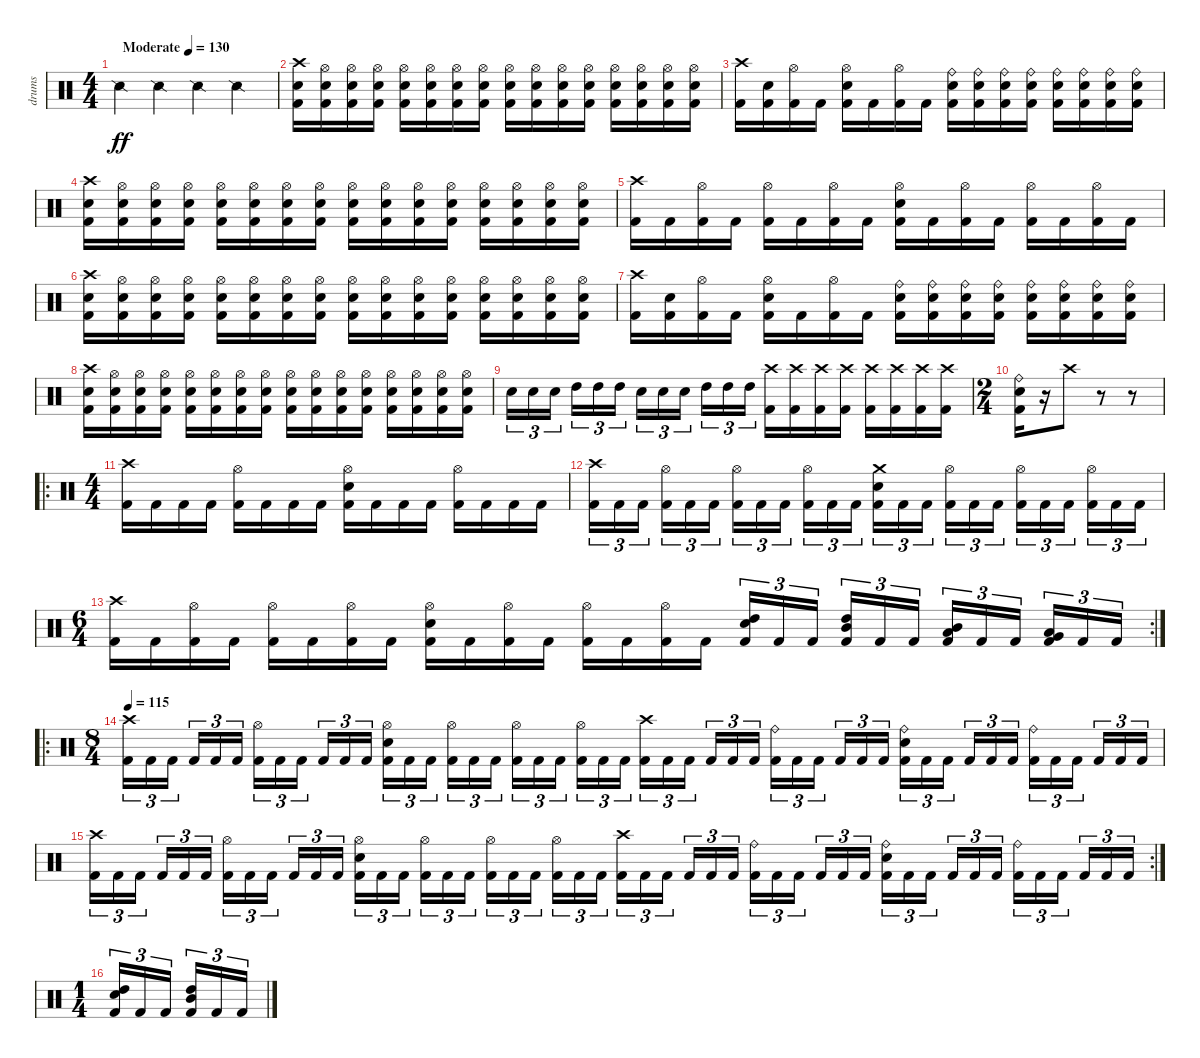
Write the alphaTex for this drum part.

\track ("drums" "drums") {instrument percussion}
\staff {score}
\articulation defaults
\ts (4 4)
\tempo (130 "Moderate")
\clef neutral
\ks c "Snare (side stick) 2".4{dy ff} "Snare (side stick) 2".4 "Snare (side stick) 2".4 "Snare (side stick) 2".4
|
("Electric Snare (hit)" "Crash high (hit)" "Kick (hit) 2").16 ("Electric Snare (hit)" "Hi-Hat (open)" "Kick (hit) 2").16 ("Electric Snare (hit)" "Hi-Hat (open)" "Kick (hit) 2").16 ("Electric Snare (hit)" "Hi-Hat (open)" "Kick (hit) 2").16 ("Electric Snare (hit)" "Hi-Hat (open)" "Kick (hit) 2").16 ("Electric Snare (hit)" "Hi-Hat (open)" "Kick (hit) 2").16 ("Electric Snare (hit)" "Hi-Hat (open)" "Kick (hit) 2").16 ("Electric Snare (hit)" "Hi-Hat (open)" "Kick (hit) 2").16 ("Electric Snare (hit)" "Hi-Hat (open)" "Kick (hit) 2").16 ("Electric Snare (hit)" "Hi-Hat (open)" "Kick (hit) 2").16 ("Electric Snare (hit)" "Hi-Hat (open)" "Kick (hit) 2").16 ("Electric Snare (hit)" "Hi-Hat (open)" "Kick (hit) 2").16 ("Electric Snare (hit)" "Hi-Hat (open)" "Kick (hit) 2").16 ("Electric Snare (hit)" "Hi-Hat (open)" "Kick (hit) 2").16 ("Electric Snare (hit)" "Hi-Hat (open)" "Kick (hit) 2").16 ("Electric Snare (hit)" "Hi-Hat (open)" "Kick (hit) 2").16 |
("Crash high (hit)" "Kick (hit) 2").16 ("Electric Snare (hit)" "Kick (hit) 2").16 ("Hi-Hat (open)" "Kick (hit) 2").16 "Kick (hit) 2".16 ("Electric Snare (hit)" "Hi-Hat (open)" "Kick (hit) 2").16 "Kick (hit) 2".16 ("Hi-Hat (open)" "Kick (hit) 2").16 "Kick (hit) 2".16 ("Electric Snare (hit)" "Ride (bell)" "Kick (hit) 2").16 ("Electric Snare (hit)" "Ride (bell)" "Kick (hit) 2").16 ("Electric Snare (hit)" "Ride (bell)" "Kick (hit) 2").16 ("Electric Snare (hit)" "Ride (bell)" "Kick (hit) 2").16 ("Electric Snare (hit)" "Ride (bell)" "Kick (hit) 2").16 ("Electric Snare (hit)" "Ride (bell)" "Kick (hit) 2").16 ("Electric Snare (hit)" "Ride (bell)" "Kick (hit) 2").16 ("Electric Snare (hit)" "Ride (bell)" "Kick (hit) 2").16 |
("Electric Snare (hit)" "Crash high (hit)" "Kick (hit) 2").16 ("Electric Snare (hit)" "Hi-Hat (open)" "Kick (hit) 2").16 ("Electric Snare (hit)" "Hi-Hat (open)" "Kick (hit) 2").16 ("Electric Snare (hit)" "Hi-Hat (open)" "Kick (hit) 2").16 ("Electric Snare (hit)" "Hi-Hat (open)" "Kick (hit) 2").16 ("Electric Snare (hit)" "Hi-Hat (open)" "Kick (hit) 2").16 ("Electric Snare (hit)" "Hi-Hat (open)" "Kick (hit) 2").16 ("Electric Snare (hit)" "Hi-Hat (open)" "Kick (hit) 2").16 ("Electric Snare (hit)" "Hi-Hat (open)" "Kick (hit) 2").16 ("Electric Snare (hit)" "Hi-Hat (open)" "Kick (hit) 2").16 ("Electric Snare (hit)" "Hi-Hat (open)" "Kick (hit) 2").16 ("Electric Snare (hit)" "Hi-Hat (open)" "Kick (hit) 2").16 ("Electric Snare (hit)" "Hi-Hat (open)" "Kick (hit) 2").16 ("Electric Snare (hit)" "Hi-Hat (open)" "Kick (hit) 2").16 ("Electric Snare (hit)" "Hi-Hat (open)" "Kick (hit) 2").16 ("Electric Snare (hit)" "Hi-Hat (open)" "Kick (hit) 2").16 |
("Crash high (hit)" "Kick (hit) 2").16 "Kick (hit) 2".16 ("Hi-Hat (open)" "Kick (hit) 2").16 "Kick (hit) 2".16 ("Hi-Hat (open)" "Kick (hit) 2").16 "Kick (hit) 2".16 ("Hi-Hat (open)" "Kick (hit) 2").16 "Kick (hit) 2".16 ("Electric Snare (hit)" "Hi-Hat (open)" "Kick (hit) 2").16 "Kick (hit) 2".16 ("Hi-Hat (open)" "Kick (hit) 2").16 "Kick (hit) 2".16 ("Hi-Hat (open)" "Kick (hit) 2").16 "Kick (hit) 2".16 ("Hi-Hat (open)" "Kick (hit) 2").16 "Kick (hit) 2".16 |
("Electric Snare (hit)" "Crash high (hit)" "Kick (hit) 2").16 ("Electric Snare (hit)" "Hi-Hat (open)" "Kick (hit) 2").16 ("Electric Snare (hit)" "Hi-Hat (open)" "Kick (hit) 2").16 ("Electric Snare (hit)" "Hi-Hat (open)" "Kick (hit) 2").16 ("Electric Snare (hit)" "Hi-Hat (open)" "Kick (hit) 2").16 ("Electric Snare (hit)" "Hi-Hat (open)" "Kick (hit) 2").16 ("Electric Snare (hit)" "Hi-Hat (open)" "Kick (hit) 2").16 ("Electric Snare (hit)" "Hi-Hat (open)" "Kick (hit) 2").16 ("Electric Snare (hit)" "Hi-Hat (open)" "Kick (hit) 2").16 ("Electric Snare (hit)" "Hi-Hat (open)" "Kick (hit) 2").16 ("Electric Snare (hit)" "Hi-Hat (open)" "Kick (hit) 2").16 ("Electric Snare (hit)" "Hi-Hat (open)" "Kick (hit) 2").16 ("Electric Snare (hit)" "Hi-Hat (open)" "Kick (hit) 2").16 ("Electric Snare (hit)" "Hi-Hat (open)" "Kick (hit) 2").16 ("Electric Snare (hit)" "Hi-Hat (open)" "Kick (hit) 2").16 ("Electric Snare (hit)" "Hi-Hat (open)" "Kick (hit) 2").16 |
("Crash high (hit)" "Kick (hit) 2").16 ("Electric Snare (hit)" "Kick (hit) 2").16 ("Hi-Hat (open)" "Kick (hit) 2").16 "Kick (hit) 2".16 ("Electric Snare (hit)" "Hi-Hat (open)" "Kick (hit) 2").16 "Kick (hit) 2".16 ("Hi-Hat (open)" "Kick (hit) 2").16 "Kick (hit) 2".16 ("Electric Snare (hit)" "Ride (bell)" "Kick (hit) 2").16 ("Electric Snare (hit)" "Ride (bell)" "Kick (hit) 2").16 ("Electric Snare (hit)" "Ride (bell)" "Kick (hit) 2").16 ("Electric Snare (hit)" "Ride (bell)" "Kick (hit) 2").16 ("Electric Snare (hit)" "Ride (bell)" "Kick (hit) 2").16 ("Electric Snare (hit)" "Ride (bell)" "Kick (hit) 2").16 ("Electric Snare (hit)" "Ride (bell)" "Kick (hit) 2").16 ("Electric Snare (hit)" "Ride (bell)" "Kick (hit) 2").16 |
("Electric Snare (hit)" "Crash high (hit)" "Kick (hit) 2").16 ("Electric Snare (hit)" "Hi-Hat (open)" "Kick (hit) 2").16 ("Electric Snare (hit)" "Hi-Hat (open)" "Kick (hit) 2").16 ("Electric Snare (hit)" "Hi-Hat (open)" "Kick (hit) 2").16 ("Electric Snare (hit)" "Hi-Hat (open)" "Kick (hit) 2").16 ("Electric Snare (hit)" "Hi-Hat (open)" "Kick (hit) 2").16 ("Electric Snare (hit)" "Hi-Hat (open)" "Kick (hit) 2").16 ("Electric Snare (hit)" "Hi-Hat (open)" "Kick (hit) 2").16 ("Electric Snare (hit)" "Hi-Hat (open)" "Kick (hit) 2").16 ("Electric Snare (hit)" "Hi-Hat (open)" "Kick (hit) 2").16 ("Electric Snare (hit)" "Hi-Hat (open)" "Kick (hit) 2").16 ("Electric Snare (hit)" "Hi-Hat (open)" "Kick (hit) 2").16 ("Electric Snare (hit)" "Hi-Hat (open)" "Kick (hit) 2").16 ("Electric Snare (hit)" "Hi-Hat (open)" "Kick (hit) 2").16 ("Electric Snare (hit)" "Hi-Hat (open)" "Kick (hit) 2").16 ("Electric Snare (hit)" "Hi-Hat (open)" "Kick (hit) 2").16 |
"Electric Snare (hit)".16{tu (3 2)} "Electric Snare (hit)".16{tu (3 2)} "Electric Snare (hit)".16{tu (3 2) beam splitsecondary} "High Tom (hit)".16{tu (3 2)} "High Tom (hit)".16{tu (3 2)} "High Tom (hit)".16{tu (3 2)} "Electric Snare (hit)".16{tu (3 2)} "Electric Snare (hit)".16{tu (3 2)} "Electric Snare (hit)".16{tu (3 2) beam splitsecondary} "High Tom (hit)".16{tu (3 2)} "High Tom (hit)".16{tu (3 2)} "High Tom (hit)".16{tu (3 2)} ("Crash high (hit)" "Kick (hit) 2").16{volume 13} ("Kick (hit) 2" "Crash high (hit)").16{volume 0} ("Crash high (hit)" "Kick (hit) 2").16{volume 13} ("Kick (hit) 2" "Crash high (hit)").16{volume 0} ("Crash high (hit)" "Kick (hit) 2").16{volume 13} ("Kick (hit) 2" "Crash high (hit)").16{volume 0} ("Crash high (hit)" "Kick (hit) 2").16{volume 13} ("Kick (hit) 2" "Crash high (hit)").16{volume 0} |
\ts (2 4)
("Electric Snare (hit)" "Ride (bell)" "Kick (hit) 2").16 r.16{volume 0} "Crash high (hit)".8{volume 16} r.8 r.8 |
\ro
\ts (4 4)
("Crash high (hit)" "Kick (hit) 2").16{volume 13} "Kick (hit) 2".16 "Kick (hit) 2".16 "Kick (hit) 2".16 ("Hi-Hat (open)" "Kick (hit) 2").16 "Kick (hit) 2".16 "Kick (hit) 2".16 "Kick (hit) 2".16 ("Electric Snare (hit)" "Hi-Hat (open)" "Kick (hit) 2").16 "Kick (hit) 2".16 "Kick (hit) 2".16 "Kick (hit) 2".16 ("Hi-Hat (open)" "Kick (hit) 2").16 "Kick (hit) 2".16 "Kick (hit) 2".16 "Kick (hit) 2".16 |
("Crash high (hit)" "Kick (hit) 2").16{tu (3 2)} "Kick (hit) 2".16{tu (3 2)} "Kick (hit) 2".16{tu (3 2) beam splitsecondary} ("Hi-Hat (open)" "Kick (hit) 2").16{tu (3 2)} "Kick (hit) 2".16{tu (3 2)} "Kick (hit) 2".16{tu (3 2)} ("Hi-Hat (open)" "Kick (hit) 2").16{tu (3 2)} "Kick (hit) 2".16{tu (3 2)} "Kick (hit) 2".16{tu (3 2) beam splitsecondary} ("Hi-Hat (open)" "Kick (hit) 2").16{tu (3 2)} "Kick (hit) 2".16{tu (3 2)} "Kick (hit) 2".16{tu (3 2)} ("Electric Snare (hit)" "Crash medium (hit)" "Kick (hit) 2").16{tu (3 2)} "Kick (hit) 2".16{tu (3 2)} "Kick (hit) 2".16{tu (3 2) beam splitsecondary} ("Hi-Hat (open)" "Kick (hit) 2").16{tu (3 2)} "Kick (hit) 2".16{tu (3 2)} "Kick (hit) 2".16{tu (3 2)} ("Hi-Hat (open)" "Kick (hit) 2").16{tu (3 2)} "Kick (hit) 2".16{tu (3 2)} "Kick (hit) 2".16{tu (3 2) beam splitsecondary} ("Hi-Hat (open)" "Kick (hit) 2").16{tu (3 2)} "Kick (hit) 2".16{tu (3 2)} "Kick (hit) 2".16{tu (3 2)} |
\rc 2
\ts (6 4)
("Crash high (hit)" "Kick (hit) 2").16 "Kick (hit) 2".16 ("Hi-Hat (open)" "Kick (hit) 2").16 "Kick (hit) 2".16 ("Hi-Hat (open)" "Kick (hit) 2").16 "Kick (hit) 2".16 ("Hi-Hat (open)" "Kick (hit) 2").16 "Kick (hit) 2".16 ("Electric Snare (hit)" "Hi-Hat (open)" "Kick (hit) 2").16 "Kick (hit) 2".16 ("Hi-Hat (open)" "Kick (hit) 2").16 "Kick (hit) 2".16 ("Hi-Hat (open)" "Kick (hit) 2").16 "Kick (hit) 2".16 ("Hi-Hat (open)" "Kick (hit) 2").16 "Kick (hit) 2".16{beam splitsecondary} ("High Tom (hit)" "Electric Snare (hit)" "Kick (hit) 2").16{tu (3 2)} "Kick (hit) 2".16{tu (3 2)} "Kick (hit) 2".16{tu (3 2) beam splitsecondary} ("Mid Tom (hit)" "High Tom (hit)" "Kick (hit) 2").16{tu (3 2)} "Kick (hit) 2".16{tu (3 2)} "Kick (hit) 2".16{tu (3 2) beam splitsecondary} ("Mid Tom (hit)" "Low Tom (hit)" "Kick (hit) 2").16{tu (3 2)} "Kick (hit) 2".16{tu (3 2)} "Kick (hit) 2".16{tu (3 2) beam splitsecondary} ("Low Tom (hit)" "Very Low Tom (hit)" "Kick (hit) 2").16{tu (3 2)} "Kick (hit) 2".16{tu (3 2)} "Kick (hit) 2".16{tu (3 2)} |
\ro
\ts (8 4)
\tempo 115
("Crash high (hit)" "Kick (hit) 2").16{tu (3 2)} "Kick (hit) 2".16{tu (3 2)} "Kick (hit) 2".16{tu (3 2) beam splitsecondary} "Kick (hit) 2".16{tu (3 2)} "Kick (hit) 2".16{tu (3 2)} "Kick (hit) 2".16{tu (3 2)} ("Hi-Hat (open)" "Kick (hit) 2").16{tu (3 2)} "Kick (hit) 2".16{tu (3 2)} "Kick (hit) 2".16{tu (3 2) beam splitsecondary} "Kick (hit) 2".16{tu (3 2)} "Kick (hit) 2".16{tu (3 2)} "Kick (hit) 2".16{tu (3 2)} ("Electric Snare (hit)" "Hi-Hat (open)" "Kick (hit) 2").16{tu (3 2)} "Kick (hit) 2".16{tu (3 2)} "Kick (hit) 2".16{tu (3 2) beam splitsecondary} ("Hi-Hat (open)" "Kick (hit) 2").16{tu (3 2)} "Kick (hit) 2".16{tu (3 2)} "Kick (hit) 2".16{tu (3 2)} ("Hi-Hat (open)" "Kick (hit) 2").16{tu (3 2)} "Kick (hit) 2".16{tu (3 2)} "Kick (hit) 2".16{tu (3 2) beam splitsecondary} ("Hi-Hat (open)" "Kick (hit) 2").16{tu (3 2)} "Kick (hit) 2".16{tu (3 2)} "Kick (hit) 2".16{tu (3 2)} ("Crash high (hit)" "Kick (hit) 2").16{tu (3 2)} "Kick (hit) 2".16{tu (3 2)} "Kick (hit) 2".16{tu (3 2) beam splitsecondary} "Kick (hit) 2".16{tu (3 2)} "Kick (hit) 2".16{tu (3 2)} "Kick (hit) 2".16{tu (3 2)} ("Ride (bell)" "Kick (hit) 2").16{tu (3 2)} "Kick (hit) 2".16{tu (3 2)} "Kick (hit) 2".16{tu (3 2) beam splitsecondary} "Kick (hit) 2".16{tu (3 2)} "Kick (hit) 2".16{tu (3 2)} "Kick (hit) 2".16{tu (3 2)} ("Electric Snare (hit)" "Ride (bell)" "Kick (hit) 2").16{tu (3 2)} "Kick (hit) 2".16{tu (3 2)} "Kick (hit) 2".16{tu (3 2) beam splitsecondary} "Kick (hit) 2".16{tu (3 2)} "Kick (hit) 2".16{tu (3 2)} "Kick (hit) 2".16{tu (3 2)} ("Ride (bell)" "Kick (hit) 2").16{tu (3 2)} "Kick (hit) 2".16{tu (3 2)} "Kick (hit) 2".16{tu (3 2) beam splitsecondary} "Kick (hit) 2".16{tu (3 2)} "Kick (hit) 2".16{tu (3 2)} "Kick (hit) 2".16{tu (3 2)} |
\rc 2
("Crash high (hit)" "Kick (hit) 2").16{tu (3 2)} "Kick (hit) 2".16{tu (3 2)} "Kick (hit) 2".16{tu (3 2) beam splitsecondary} "Kick (hit) 2".16{tu (3 2)} "Kick (hit) 2".16{tu (3 2)} "Kick (hit) 2".16{tu (3 2)} ("Hi-Hat (open)" "Kick (hit) 2").16{tu (3 2)} "Kick (hit) 2".16{tu (3 2)} "Kick (hit) 2".16{tu (3 2) beam splitsecondary} "Kick (hit) 2".16{tu (3 2)} "Kick (hit) 2".16{tu (3 2)} "Kick (hit) 2".16{tu (3 2)} ("Electric Snare (hit)" "Hi-Hat (open)" "Kick (hit) 2").16{tu (3 2)} "Kick (hit) 2".16{tu (3 2)} "Kick (hit) 2".16{tu (3 2) beam splitsecondary} ("Hi-Hat (open)" "Kick (hit) 2").16{tu (3 2)} "Kick (hit) 2".16{tu (3 2)} "Kick (hit) 2".16{tu (3 2)} ("Hi-Hat (open)" "Kick (hit) 2").16{tu (3 2)} "Kick (hit) 2".16{tu (3 2)} "Kick (hit) 2".16{tu (3 2) beam splitsecondary} ("Hi-Hat (open)" "Kick (hit) 2").16{tu (3 2)} "Kick (hit) 2".16{tu (3 2)} "Kick (hit) 2".16{tu (3 2)} ("Crash high (hit)" "Kick (hit) 2").16{tu (3 2)} "Kick (hit) 2".16{tu (3 2)} "Kick (hit) 2".16{tu (3 2) beam splitsecondary} "Kick (hit) 2".16{tu (3 2)} "Kick (hit) 2".16{tu (3 2)} "Kick (hit) 2".16{tu (3 2)} ("Ride (bell)" "Kick (hit) 2").16{tu (3 2)} "Kick (hit) 2".16{tu (3 2)} "Kick (hit) 2".16{tu (3 2) beam splitsecondary} "Kick (hit) 2".16{tu (3 2)} "Kick (hit) 2".16{tu (3 2)} "Kick (hit) 2".16{tu (3 2)} ("Electric Snare (hit)" "Ride (bell)" "Kick (hit) 2").16{tu (3 2)} "Kick (hit) 2".16{tu (3 2)} "Kick (hit) 2".16{tu (3 2) beam splitsecondary} "Kick (hit) 2".16{tu (3 2)} "Kick (hit) 2".16{tu (3 2)} "Kick (hit) 2".16{tu (3 2)} ("Ride (bell)" "Kick (hit) 2").16{tu (3 2)} "Kick (hit) 2".16{tu (3 2)} "Kick (hit) 2".16{tu (3 2) beam splitsecondary} "Kick (hit) 2".16{tu (3 2)} "Kick (hit) 2".16{tu (3 2)} "Kick (hit) 2".16{tu (3 2)} |
\ts (1 4)
("High Tom (hit)" "Electric Snare (hit)" "Kick (hit) 2").16{tu (3 2)} "Kick (hit) 2".16{tu (3 2)} "Kick (hit) 2".16{tu (3 2) beam splitsecondary} ("Mid Tom (hit)" "High Tom (hit)" "Kick (hit) 2").16{tu (3 2)} "Kick (hit) 2".16{tu (3 2)} "Kick (hit) 2".16{tu (3 2)}
